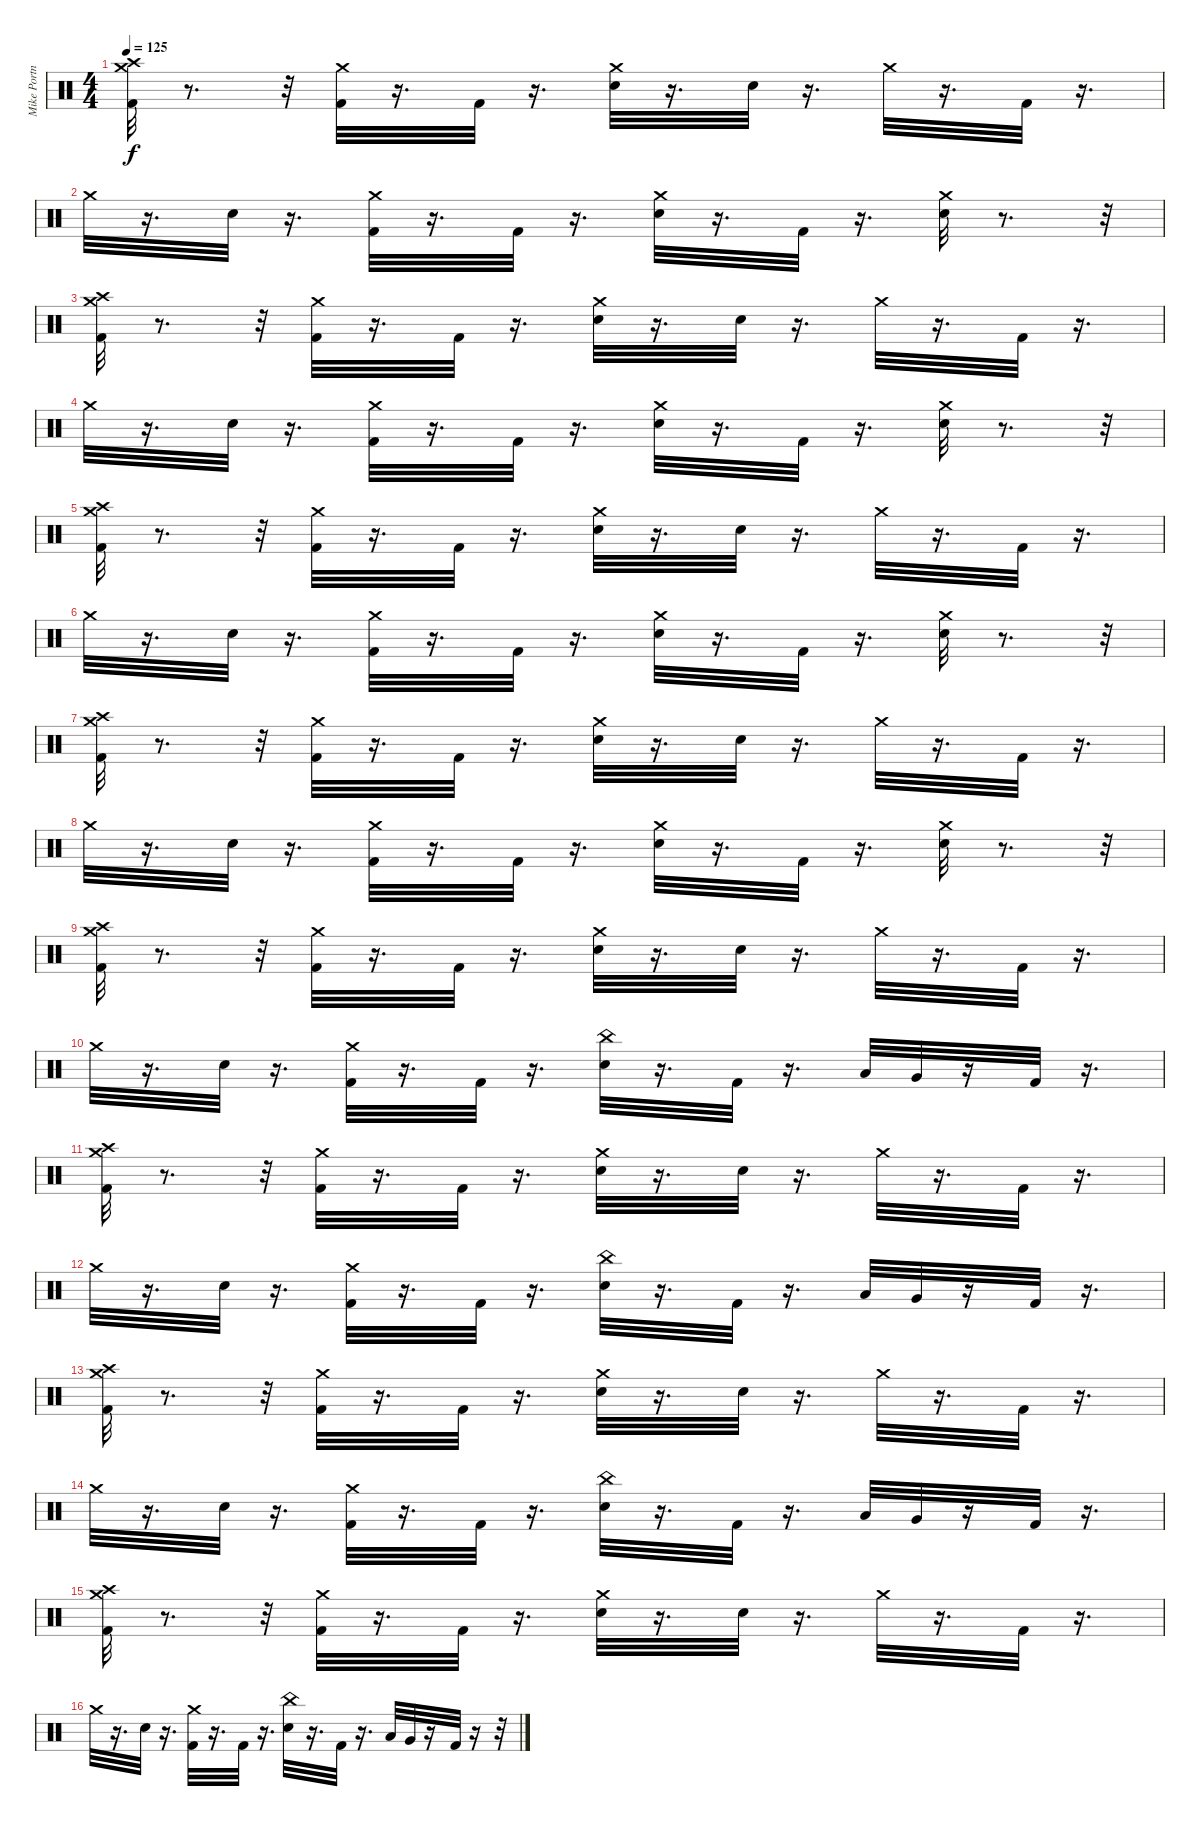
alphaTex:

\track ("Mike Portnoy" "Mike Portn") {instrument percussion}
\staff {score}
\articulation defaults
\ts (4 4)
\tempo 125
\clef neutral
\ks c
("Crash medium (hit)" "Crash high (hit)" "Kick (hit) 2").32{dy f} r.8{d} r.32 ("Crash medium (hit)" "Kick (hit) 2").32 r.16{d} "Kick (hit) 2".32 r.16{d} ("Crash medium (hit)" "Snare (hit) 2").32 r.16{d} "Snare (hit) 2".32 r.16{d} "Crash medium (hit)".32 r.16{d} "Kick (hit) 2".32 r.16{d} |
"Crash medium (hit)".32 r.16{d} "Snare (hit) 2".32 r.16{d} ("Kick (hit) 2" "Crash medium (hit)").32 r.16{d} "Kick (hit) 2".32 r.16{d} ("Snare (hit) 2" "Crash medium (hit)").32 r.16{d} "Kick (hit) 2".32 r.16{d} ("Crash medium (hit)" "Snare (hit) 2").32 r.8{d} r.32 |
("Crash medium (hit)" "Crash high (hit)" "Kick (hit) 2").32 r.8{d} r.32 ("Crash medium (hit)" "Kick (hit) 2").32 r.16{d} "Kick (hit) 2".32 r.16{d} ("Crash medium (hit)" "Snare (hit) 2").32 r.16{d} "Snare (hit) 2".32 r.16{d} "Crash medium (hit)".32 r.16{d} "Kick (hit) 2".32 r.16{d} |
"Crash medium (hit)".32 r.16{d} "Snare (hit) 2".32 r.16{d} ("Kick (hit) 2" "Crash medium (hit)").32 r.16{d} "Kick (hit) 2".32 r.16{d} ("Snare (hit) 2" "Crash medium (hit)").32 r.16{d} "Kick (hit) 2".32 r.16{d} ("Crash medium (hit)" "Snare (hit) 2").32 r.8{d} r.32 |
("Crash medium (hit)" "Crash high (hit)" "Kick (hit) 2").32 r.8{d} r.32 ("Crash medium (hit)" "Kick (hit) 2").32 r.16{d} "Kick (hit) 2".32 r.16{d} ("Crash medium (hit)" "Snare (hit) 2").32 r.16{d} "Snare (hit) 2".32 r.16{d} "Crash medium (hit)".32 r.16{d} "Kick (hit) 2".32 r.16{d} |
"Crash medium (hit)".32 r.16{d} "Snare (hit) 2".32 r.16{d} ("Kick (hit) 2" "Crash medium (hit)").32 r.16{d} "Kick (hit) 2".32 r.16{d} ("Snare (hit) 2" "Crash medium (hit)").32 r.16{d} "Kick (hit) 2".32 r.16{d} ("Crash medium (hit)" "Snare (hit) 2").32 r.8{d} r.32 |
("Crash medium (hit)" "Crash high (hit)" "Kick (hit) 2").32 r.8{d} r.32 ("Crash medium (hit)" "Kick (hit) 2").32 r.16{d} "Kick (hit) 2".32 r.16{d} ("Crash medium (hit)" "Snare (hit) 2").32 r.16{d} "Snare (hit) 2".32 r.16{d} "Crash medium (hit)".32 r.16{d} "Kick (hit) 2".32 r.16{d} |
"Crash medium (hit)".32 r.16{d} "Snare (hit) 2".32 r.16{d} ("Kick (hit) 2" "Crash medium (hit)").32 r.16{d} "Kick (hit) 2".32 r.16{d} ("Snare (hit) 2" "Crash medium (hit)").32 r.16{d} "Kick (hit) 2".32 r.16{d} ("Crash medium (hit)" "Snare (hit) 2").32 r.8{d} r.32 |
("Crash medium (hit)" "Crash high (hit)" "Kick (hit) 2").32 r.8{d} r.32 ("Crash medium (hit)" "Kick (hit) 2").32 r.16{d} "Kick (hit) 2".32 r.16{d} ("Crash medium (hit)" "Snare (hit) 2").32 r.16{d} "Snare (hit) 2".32 r.16{d} "Crash medium (hit)".32 r.16{d} "Kick (hit) 2".32 r.16{d} |
"Crash medium (hit)".32 r.16{d} "Snare (hit) 2".32 r.16{d} ("Kick (hit) 2" "Crash medium (hit)").32 r.16{d} "Kick (hit) 2".32 r.16{d} ("Snare (hit) 2" "China (hit)").32 r.16{d} "Kick (hit) 2".32 r.16{d} "Low Floor Tom (hit)".32 "Very Low Tom (hit)".32 r.16 "Kick (hit) 2".32 r.16{d} |
("Crash medium (hit)" "Crash high (hit)" "Kick (hit) 2").32 r.8{d} r.32 ("Crash medium (hit)" "Kick (hit) 2").32 r.16{d} "Kick (hit) 2".32 r.16{d} ("Crash medium (hit)" "Snare (hit) 2").32 r.16{d} "Snare (hit) 2".32 r.16{d} "Crash medium (hit)".32 r.16{d} "Kick (hit) 2".32 r.16{d} |
"Crash medium (hit)".32 r.16{d} "Snare (hit) 2".32 r.16{d} ("Kick (hit) 2" "Crash medium (hit)").32 r.16{d} "Kick (hit) 2".32 r.16{d} ("Snare (hit) 2" "China (hit)").32 r.16{d} "Kick (hit) 2".32 r.16{d} "Low Floor Tom (hit)".32 "Very Low Tom (hit)".32 r.16 "Kick (hit) 2".32 r.16{d} |
("Crash medium (hit)" "Crash high (hit)" "Kick (hit) 2").32 r.8{d} r.32 ("Crash medium (hit)" "Kick (hit) 2").32 r.16{d} "Kick (hit) 2".32 r.16{d} ("Crash medium (hit)" "Snare (hit) 2").32 r.16{d} "Snare (hit) 2".32 r.16{d} "Crash medium (hit)".32 r.16{d} "Kick (hit) 2".32 r.16{d} |
"Crash medium (hit)".32 r.16{d} "Snare (hit) 2".32 r.16{d} ("Kick (hit) 2" "Crash medium (hit)").32 r.16{d} "Kick (hit) 2".32 r.16{d} ("China (hit)" "Snare (hit) 2").32 r.16{d} "Kick (hit) 2".32 r.16{d} "Low Floor Tom (hit)".32 "Very Low Tom (hit)".32 r.16 "Kick (hit) 2".32 r.16{d} |
("Crash medium (hit)" "Crash high (hit)" "Kick (hit) 2").32 r.8{d} r.32 ("Crash medium (hit)" "Kick (hit) 2").32 r.16{d} "Kick (hit) 2".32 r.16{d} ("Crash medium (hit)" "Snare (hit) 2").32 r.16{d} "Snare (hit) 2".32 r.16{d} "Crash medium (hit)".32 r.16{d} "Kick (hit) 2".32 r.16{d} |
"Crash medium (hit)".32 r.16{d} "Snare (hit) 2".32 r.16{d} ("Kick (hit) 2" "Crash medium (hit)").32 r.16{d} "Kick (hit) 2".32 r.16{d} ("China (hit)" "Snare (hit) 2").32 r.16{d} "Kick (hit) 2".32 r.16{d} "Low Floor Tom (hit)".32 "Very Low Tom (hit)".32 r.16 "Kick (hit) 2".32 r.16 r.32
